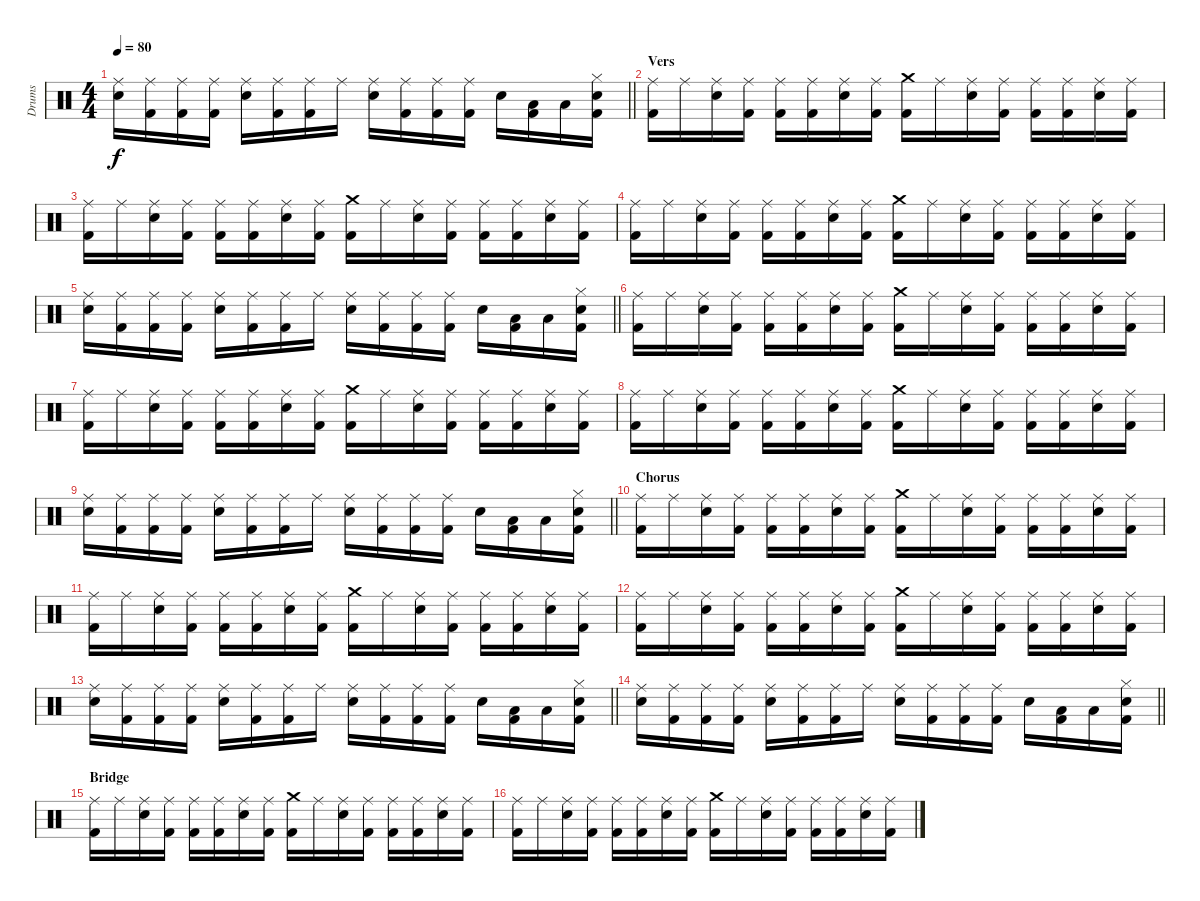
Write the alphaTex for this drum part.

\track ("Drums" "Drums") {instrument percussion}
\staff {score}
\articulation defaults
\ts (4 4)
\tempo 80
\clef neutral
\barLineRight lightlight
\ks c
("Ride (middle)" "Snare (hit) 2").16{dy f} ("Ride (middle)" "Kick (hit) 2").16 ("Ride (middle)" "Kick (hit) 2").16 ("Ride (middle)" "Kick (hit) 2").16 ("Ride (middle)" "Snare (hit) 2").16 ("Ride (middle)" "Kick (hit) 2").16 ("Ride (middle)" "Kick (hit) 2").16 "Ride (middle)".16 ("Ride (middle)" "Snare (hit) 2").16 ("Ride (middle)" "Kick (hit) 2").16 ("Ride (middle)" "Kick (hit) 2").16 ("Ride (middle)" "Kick (hit) 2").16 "Snare (hit) 2".16 ("Low Tom (hit)" "Kick (hit) 2").16 "Low Tom (hit)".16 ("Hi-Hat (closed)" "Snare (hit) 2" "Kick (hit) 2").16 |
\section ("" "Vers")
("Ride (middle)" "Kick (hit) 2").16 "Ride (middle)".16 ("Ride (middle)" "Snare (hit) 2").16 ("Ride (middle)" "Kick (hit) 2").16 ("Ride (middle)" "Kick (hit) 2").16 ("Ride (middle)" "Kick (hit) 2").16 ("Ride (middle)" "Snare (hit) 2").16 ("Ride (middle)" "Kick (hit) 2").16 ("Crash medium (hit)" "Kick (hit) 2").16 "Ride (middle)".16 ("Ride (middle)" "Snare (hit) 2").16 ("Ride (middle)" "Kick (hit) 2").16 ("Ride (middle)" "Kick (hit) 2").16 ("Ride (middle)" "Kick (hit) 2").16 ("Ride (middle)" "Snare (hit) 2").16 ("Ride (middle)" "Kick (hit) 2").16 |
("Ride (middle)" "Kick (hit) 2").16 "Ride (middle)".16 ("Ride (middle)" "Snare (hit) 2").16 ("Ride (middle)" "Kick (hit) 2").16 ("Ride (middle)" "Kick (hit) 2").16 ("Ride (middle)" "Kick (hit) 2").16 ("Ride (middle)" "Snare (hit) 2").16 ("Ride (middle)" "Kick (hit) 2").16 ("Crash medium (hit)" "Kick (hit) 2").16 "Ride (middle)".16 ("Ride (middle)" "Snare (hit) 2").16 ("Ride (middle)" "Kick (hit) 2").16 ("Ride (middle)" "Kick (hit) 2").16 ("Ride (middle)" "Kick (hit) 2").16 ("Ride (middle)" "Snare (hit) 2").16 ("Ride (middle)" "Kick (hit) 2").16 |
("Ride (middle)" "Kick (hit) 2").16 "Ride (middle)".16 ("Ride (middle)" "Snare (hit) 2").16 ("Ride (middle)" "Kick (hit) 2").16 ("Ride (middle)" "Kick (hit) 2").16 ("Ride (middle)" "Kick (hit) 2").16 ("Ride (middle)" "Snare (hit) 2").16 ("Ride (middle)" "Kick (hit) 2").16 ("Crash medium (hit)" "Kick (hit) 2").16 "Ride (middle)".16 ("Ride (middle)" "Snare (hit) 2").16 ("Ride (middle)" "Kick (hit) 2").16 ("Ride (middle)" "Kick (hit) 2").16 ("Ride (middle)" "Kick (hit) 2").16 ("Ride (middle)" "Snare (hit) 2").16 ("Ride (middle)" "Kick (hit) 2").16 |
\barLineRight lightlight
("Ride (middle)" "Snare (hit) 2").16 ("Ride (middle)" "Kick (hit) 2").16 ("Ride (middle)" "Kick (hit) 2").16 ("Ride (middle)" "Kick (hit) 2").16 ("Ride (middle)" "Snare (hit) 2").16 ("Ride (middle)" "Kick (hit) 2").16 ("Ride (middle)" "Kick (hit) 2").16 "Ride (middle)".16 ("Ride (middle)" "Snare (hit) 2").16 ("Ride (middle)" "Kick (hit) 2").16 ("Ride (middle)" "Kick (hit) 2").16 ("Ride (middle)" "Kick (hit) 2").16 "Snare (hit) 2".16 ("Low Tom (hit)" "Kick (hit) 2").16 "Low Tom (hit)".16 ("Hi-Hat (closed)" "Snare (hit) 2" "Kick (hit) 2").16 |
("Ride (middle)" "Kick (hit) 2").16 "Ride (middle)".16 ("Ride (middle)" "Snare (hit) 2").16 ("Ride (middle)" "Kick (hit) 2").16 ("Ride (middle)" "Kick (hit) 2").16 ("Ride (middle)" "Kick (hit) 2").16 ("Ride (middle)" "Snare (hit) 2").16 ("Ride (middle)" "Kick (hit) 2").16 ("Crash medium (hit)" "Kick (hit) 2").16 "Ride (middle)".16 ("Ride (middle)" "Snare (hit) 2").16 ("Ride (middle)" "Kick (hit) 2").16 ("Ride (middle)" "Kick (hit) 2").16 ("Ride (middle)" "Kick (hit) 2").16 ("Ride (middle)" "Snare (hit) 2").16 ("Ride (middle)" "Kick (hit) 2").16 |
("Ride (middle)" "Kick (hit) 2").16 "Ride (middle)".16 ("Ride (middle)" "Snare (hit) 2").16 ("Ride (middle)" "Kick (hit) 2").16 ("Ride (middle)" "Kick (hit) 2").16 ("Ride (middle)" "Kick (hit) 2").16 ("Ride (middle)" "Snare (hit) 2").16 ("Ride (middle)" "Kick (hit) 2").16 ("Crash medium (hit)" "Kick (hit) 2").16 "Ride (middle)".16 ("Ride (middle)" "Snare (hit) 2").16 ("Ride (middle)" "Kick (hit) 2").16 ("Ride (middle)" "Kick (hit) 2").16 ("Ride (middle)" "Kick (hit) 2").16 ("Ride (middle)" "Snare (hit) 2").16 ("Ride (middle)" "Kick (hit) 2").16 |
("Ride (middle)" "Kick (hit) 2").16 "Ride (middle)".16 ("Ride (middle)" "Snare (hit) 2").16 ("Ride (middle)" "Kick (hit) 2").16 ("Ride (middle)" "Kick (hit) 2").16 ("Ride (middle)" "Kick (hit) 2").16 ("Ride (middle)" "Snare (hit) 2").16 ("Ride (middle)" "Kick (hit) 2").16 ("Crash medium (hit)" "Kick (hit) 2").16 "Ride (middle)".16 ("Ride (middle)" "Snare (hit) 2").16 ("Ride (middle)" "Kick (hit) 2").16 ("Ride (middle)" "Kick (hit) 2").16 ("Ride (middle)" "Kick (hit) 2").16 ("Ride (middle)" "Snare (hit) 2").16 ("Ride (middle)" "Kick (hit) 2").16 |
\barLineRight lightlight
("Ride (middle)" "Snare (hit) 2").16 ("Ride (middle)" "Kick (hit) 2").16 ("Ride (middle)" "Kick (hit) 2").16 ("Ride (middle)" "Kick (hit) 2").16 ("Ride (middle)" "Snare (hit) 2").16 ("Ride (middle)" "Kick (hit) 2").16 ("Ride (middle)" "Kick (hit) 2").16 "Ride (middle)".16 ("Ride (middle)" "Snare (hit) 2").16 ("Ride (middle)" "Kick (hit) 2").16 ("Ride (middle)" "Kick (hit) 2").16 ("Ride (middle)" "Kick (hit) 2").16 "Snare (hit) 2".16 ("Low Tom (hit)" "Kick (hit) 2").16 "Low Tom (hit)".16 ("Hi-Hat (closed)" "Snare (hit) 2" "Kick (hit) 2").16 |
\section ("" "Chorus")
("Ride (middle)" "Kick (hit) 2").16 "Ride (middle)".16 ("Ride (middle)" "Snare (hit) 2").16 ("Ride (middle)" "Kick (hit) 2").16 ("Ride (middle)" "Kick (hit) 2").16 ("Ride (middle)" "Kick (hit) 2").16 ("Ride (middle)" "Snare (hit) 2").16 ("Ride (middle)" "Kick (hit) 2").16 ("Crash medium (hit)" "Kick (hit) 2").16 "Ride (middle)".16 ("Ride (middle)" "Snare (hit) 2").16 ("Ride (middle)" "Kick (hit) 2").16 ("Ride (middle)" "Kick (hit) 2").16 ("Ride (middle)" "Kick (hit) 2").16 ("Ride (middle)" "Snare (hit) 2").16 ("Ride (middle)" "Kick (hit) 2").16 |
("Ride (middle)" "Kick (hit) 2").16 "Ride (middle)".16 ("Ride (middle)" "Snare (hit) 2").16 ("Ride (middle)" "Kick (hit) 2").16 ("Ride (middle)" "Kick (hit) 2").16 ("Ride (middle)" "Kick (hit) 2").16 ("Ride (middle)" "Snare (hit) 2").16 ("Ride (middle)" "Kick (hit) 2").16 ("Crash medium (hit)" "Kick (hit) 2").16 "Ride (middle)".16 ("Ride (middle)" "Snare (hit) 2").16 ("Ride (middle)" "Kick (hit) 2").16 ("Ride (middle)" "Kick (hit) 2").16 ("Ride (middle)" "Kick (hit) 2").16 ("Ride (middle)" "Snare (hit) 2").16 ("Ride (middle)" "Kick (hit) 2").16 |
("Ride (middle)" "Kick (hit) 2").16 "Ride (middle)".16 ("Ride (middle)" "Snare (hit) 2").16 ("Ride (middle)" "Kick (hit) 2").16 ("Ride (middle)" "Kick (hit) 2").16 ("Ride (middle)" "Kick (hit) 2").16 ("Ride (middle)" "Snare (hit) 2").16 ("Ride (middle)" "Kick (hit) 2").16 ("Crash medium (hit)" "Kick (hit) 2").16 "Ride (middle)".16 ("Ride (middle)" "Snare (hit) 2").16 ("Ride (middle)" "Kick (hit) 2").16 ("Ride (middle)" "Kick (hit) 2").16 ("Ride (middle)" "Kick (hit) 2").16 ("Ride (middle)" "Snare (hit) 2").16 ("Ride (middle)" "Kick (hit) 2").16 |
\barLineRight lightlight
("Ride (middle)" "Snare (hit) 2").16 ("Ride (middle)" "Kick (hit) 2").16 ("Ride (middle)" "Kick (hit) 2").16 ("Ride (middle)" "Kick (hit) 2").16 ("Ride (middle)" "Snare (hit) 2").16 ("Ride (middle)" "Kick (hit) 2").16 ("Ride (middle)" "Kick (hit) 2").16 "Ride (middle)".16 ("Ride (middle)" "Snare (hit) 2").16 ("Ride (middle)" "Kick (hit) 2").16 ("Ride (middle)" "Kick (hit) 2").16 ("Ride (middle)" "Kick (hit) 2").16 "Snare (hit) 2".16 ("Low Tom (hit)" "Kick (hit) 2").16 "Low Tom (hit)".16 ("Hi-Hat (closed)" "Snare (hit) 2" "Kick (hit) 2").16 |
\barLineRight lightlight
("Ride (middle)" "Snare (hit) 2").16 ("Ride (middle)" "Kick (hit) 2").16 ("Ride (middle)" "Kick (hit) 2").16 ("Ride (middle)" "Kick (hit) 2").16 ("Ride (middle)" "Snare (hit) 2").16 ("Ride (middle)" "Kick (hit) 2").16 ("Ride (middle)" "Kick (hit) 2").16 "Ride (middle)".16 ("Ride (middle)" "Snare (hit) 2").16 ("Ride (middle)" "Kick (hit) 2").16 ("Ride (middle)" "Kick (hit) 2").16 ("Ride (middle)" "Kick (hit) 2").16 "Snare (hit) 2".16 ("Low Tom (hit)" "Kick (hit) 2").16 "Low Tom (hit)".16 ("Hi-Hat (closed)" "Snare (hit) 2" "Kick (hit) 2").16 |
\section ("" "Bridge")
("Ride (middle)" "Kick (hit) 2").16 "Ride (middle)".16 ("Ride (middle)" "Snare (hit) 2").16 ("Ride (middle)" "Kick (hit) 2").16 ("Ride (middle)" "Kick (hit) 2").16 ("Ride (middle)" "Kick (hit) 2").16 ("Ride (middle)" "Snare (hit) 2").16 ("Ride (middle)" "Kick (hit) 2").16 ("Crash medium (hit)" "Kick (hit) 2").16 "Ride (middle)".16 ("Ride (middle)" "Snare (hit) 2").16 ("Ride (middle)" "Kick (hit) 2").16 ("Ride (middle)" "Kick (hit) 2").16 ("Ride (middle)" "Kick (hit) 2").16 ("Ride (middle)" "Snare (hit) 2").16 ("Ride (middle)" "Kick (hit) 2").16 |
("Ride (middle)" "Kick (hit) 2").16 "Ride (middle)".16 ("Ride (middle)" "Snare (hit) 2").16 ("Ride (middle)" "Kick (hit) 2").16 ("Ride (middle)" "Kick (hit) 2").16 ("Ride (middle)" "Kick (hit) 2").16 ("Ride (middle)" "Snare (hit) 2").16 ("Ride (middle)" "Kick (hit) 2").16 ("Crash medium (hit)" "Kick (hit) 2").16 "Ride (middle)".16 ("Ride (middle)" "Snare (hit) 2").16 ("Ride (middle)" "Kick (hit) 2").16 ("Ride (middle)" "Kick (hit) 2").16 ("Ride (middle)" "Kick (hit) 2").16 ("Ride (middle)" "Snare (hit) 2").16 ("Ride (middle)" "Kick (hit) 2").16
